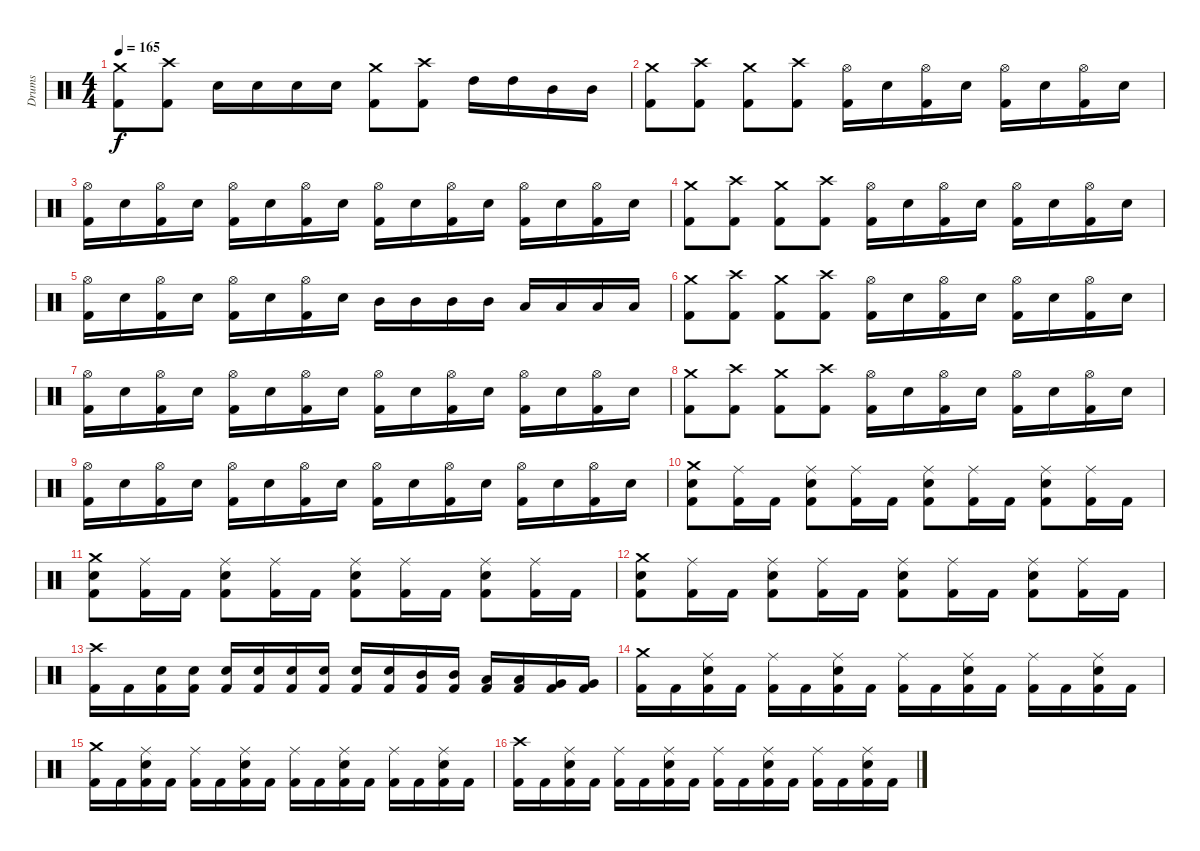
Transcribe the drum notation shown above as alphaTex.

\track ("Drums" "Drums") {instrument percussion}
\staff {score}
\articulation defaults
\ts (4 4)
\tempo 165
\clef neutral
\ks c
("Crash medium (hit)" "Kick (hit) 2").8{dy f} ("Crash high (hit)" "Kick (hit) 2").8 "Electric Snare (hit)".16 "Electric Snare (hit)".16 "Electric Snare (hit)".16 "Electric Snare (hit)".16 ("Crash medium (hit)" "Kick (hit) 2").8 ("Crash high (hit)" "Kick (hit) 2").8 "High Tom (hit)".16 "High Tom (hit)".16 "Mid Tom (hit)".16 "Mid Tom (hit)".16 |
("Crash medium (hit)" "Kick (hit) 2").8 ("Crash high (hit)" "Kick (hit) 2").8 ("Crash medium (hit)" "Kick (hit) 2").8 ("Crash high (hit)" "Kick (hit) 2").8 ("Hi-Hat (open)" "Kick (hit) 2").16 "Electric Snare (hit)".16 ("Hi-Hat (open)" "Kick (hit) 2").16 "Electric Snare (hit)".16 ("Hi-Hat (open)" "Kick (hit) 2").16 "Electric Snare (hit)".16 ("Hi-Hat (open)" "Kick (hit) 2").16 "Electric Snare (hit)".16 |
("Hi-Hat (open)" "Kick (hit) 2").16 "Electric Snare (hit)".16 ("Hi-Hat (open)" "Kick (hit) 2").16 "Electric Snare (hit)".16 ("Hi-Hat (open)" "Kick (hit) 2").16 "Electric Snare (hit)".16 ("Hi-Hat (open)" "Kick (hit) 2").16 "Electric Snare (hit)".16 ("Hi-Hat (open)" "Kick (hit) 2").16 "Electric Snare (hit)".16 ("Hi-Hat (open)" "Kick (hit) 2").16 "Electric Snare (hit)".16 ("Hi-Hat (open)" "Kick (hit) 2").16 "Electric Snare (hit)".16 ("Hi-Hat (open)" "Kick (hit) 2").16 "Electric Snare (hit)".16 |
("Crash medium (hit)" "Kick (hit) 2").8 ("Crash high (hit)" "Kick (hit) 2").8 ("Crash medium (hit)" "Kick (hit) 2").8 ("Crash high (hit)" "Kick (hit) 2").8 ("Hi-Hat (open)" "Kick (hit) 2").16 "Electric Snare (hit)".16 ("Hi-Hat (open)" "Kick (hit) 2").16 "Electric Snare (hit)".16 ("Hi-Hat (open)" "Kick (hit) 2").16 "Electric Snare (hit)".16 ("Hi-Hat (open)" "Kick (hit) 2").16 "Electric Snare (hit)".16 |
("Hi-Hat (open)" "Kick (hit) 2").16 "Electric Snare (hit)".16 ("Hi-Hat (open)" "Kick (hit) 2").16 "Electric Snare (hit)".16 ("Hi-Hat (open)" "Kick (hit) 2").16 "Electric Snare (hit)".16 ("Hi-Hat (open)" "Kick (hit) 2").16 "Electric Snare (hit)".16 "Mid Tom (hit)".16 "Mid Tom (hit)".16 "Mid Tom (hit)".16 "Mid Tom (hit)".16 "Low Tom (hit)".16 "Low Tom (hit)".16 "Low Tom (hit)".16 "Low Tom (hit)".16 |
("Crash medium (hit)" "Kick (hit) 2").8 ("Crash high (hit)" "Kick (hit) 2").8 ("Crash medium (hit)" "Kick (hit) 2").8 ("Crash high (hit)" "Kick (hit) 2").8 ("Hi-Hat (open)" "Kick (hit) 2").16 "Electric Snare (hit)".16 ("Hi-Hat (open)" "Kick (hit) 2").16 "Electric Snare (hit)".16 ("Hi-Hat (open)" "Kick (hit) 2").16 "Electric Snare (hit)".16 ("Hi-Hat (open)" "Kick (hit) 2").16 "Electric Snare (hit)".16 |
("Hi-Hat (open)" "Kick (hit) 2").16 "Electric Snare (hit)".16 ("Hi-Hat (open)" "Kick (hit) 2").16 "Electric Snare (hit)".16 ("Hi-Hat (open)" "Kick (hit) 2").16 "Electric Snare (hit)".16 ("Hi-Hat (open)" "Kick (hit) 2").16 "Electric Snare (hit)".16 ("Hi-Hat (open)" "Kick (hit) 2").16 "Electric Snare (hit)".16 ("Hi-Hat (open)" "Kick (hit) 2").16 "Electric Snare (hit)".16 ("Hi-Hat (open)" "Kick (hit) 2").16 "Electric Snare (hit)".16 ("Hi-Hat (open)" "Kick (hit) 2").16 "Electric Snare (hit)".16 |
("Crash medium (hit)" "Kick (hit) 2").8 ("Crash high (hit)" "Kick (hit) 2").8 ("Crash medium (hit)" "Kick (hit) 2").8 ("Crash high (hit)" "Kick (hit) 2").8 ("Hi-Hat (open)" "Kick (hit) 2").16 "Electric Snare (hit)".16 ("Hi-Hat (open)" "Kick (hit) 2").16 "Electric Snare (hit)".16 ("Hi-Hat (open)" "Kick (hit) 2").16 "Electric Snare (hit)".16 ("Hi-Hat (open)" "Kick (hit) 2").16 "Electric Snare (hit)".16 |
("Hi-Hat (open)" "Kick (hit) 2").16 "Electric Snare (hit)".16 ("Hi-Hat (open)" "Kick (hit) 2").16 "Electric Snare (hit)".16 ("Hi-Hat (open)" "Kick (hit) 2").16 "Electric Snare (hit)".16 ("Hi-Hat (open)" "Kick (hit) 2").16 "Electric Snare (hit)".16 ("Hi-Hat (open)" "Kick (hit) 2").16 "Electric Snare (hit)".16 ("Hi-Hat (open)" "Kick (hit) 2").16 "Electric Snare (hit)".16 ("Hi-Hat (open)" "Kick (hit) 2").16 "Electric Snare (hit)".16 ("Hi-Hat (open)" "Kick (hit) 2").16 "Electric Snare (hit)".16 |
("Crash medium (hit)" "Electric Snare (hit)" "Kick (hit) 2").8 ("Ride (middle)" "Kick (hit) 2").16 "Kick (hit) 2".16 ("Ride (middle)" "Electric Snare (hit)" "Kick (hit) 2").8 ("Ride (middle)" "Kick (hit) 2").16 "Kick (hit) 2".16 ("Ride (middle)" "Electric Snare (hit)" "Kick (hit) 2").8 ("Ride (middle)" "Kick (hit) 2").16 "Kick (hit) 2".16 ("Ride (middle)" "Electric Snare (hit)" "Kick (hit) 2").8 ("Ride (middle)" "Kick (hit) 2").16 "Kick (hit) 2".16 |
("Crash medium (hit)" "Electric Snare (hit)" "Kick (hit) 2").8 ("Ride (middle)" "Kick (hit) 2").16 "Kick (hit) 2".16 ("Ride (middle)" "Electric Snare (hit)" "Kick (hit) 2").8 ("Ride (middle)" "Kick (hit) 2").16 "Kick (hit) 2".16 ("Ride (middle)" "Electric Snare (hit)" "Kick (hit) 2").8 ("Ride (middle)" "Kick (hit) 2").16 "Kick (hit) 2".16 ("Ride (middle)" "Electric Snare (hit)" "Kick (hit) 2").8 ("Ride (middle)" "Kick (hit) 2").16 "Kick (hit) 2".16 |
("Crash medium (hit)" "Electric Snare (hit)" "Kick (hit) 2").8 ("Ride (middle)" "Kick (hit) 2").16 "Kick (hit) 2".16 ("Ride (middle)" "Electric Snare (hit)" "Kick (hit) 2").8 ("Ride (middle)" "Kick (hit) 2").16 "Kick (hit) 2".16 ("Ride (middle)" "Electric Snare (hit)" "Kick (hit) 2").8 ("Ride (middle)" "Kick (hit) 2").16 "Kick (hit) 2".16 ("Ride (middle)" "Electric Snare (hit)" "Kick (hit) 2").8 ("Ride (middle)" "Kick (hit) 2").16 "Kick (hit) 2".16 |
("Crash high (hit)" "Kick (hit) 2").16 "Kick (hit) 2".16 ("Electric Snare (hit)" "Kick (hit) 2").16 ("Electric Snare (hit)" "Kick (hit) 2").16 ("Electric Snare (hit)" "Kick (hit) 2").16 ("Electric Snare (hit)" "Kick (hit) 2").16 ("Electric Snare (hit)" "Kick (hit) 2").16 ("Electric Snare (hit)" "Kick (hit) 2").16 ("Electric Snare (hit)" "Kick (hit) 2").16 ("Electric Snare (hit)" "Kick (hit) 2").16 ("Mid Tom (hit)" "Kick (hit) 2").16 ("Mid Tom (hit)" "Kick (hit) 2").16 ("Low Tom (hit)" "Kick (hit) 2").16 ("Low Tom (hit)" "Kick (hit) 2").16 ("Very Low Tom (hit)" "Kick (hit) 2").16 ("Very Low Tom (hit)" "Kick (hit) 2").16 |
("Crash medium (hit)" "Kick (hit) 2").16 "Kick (hit) 2".16 ("Ride (middle)" "Electric Snare (hit)" "Kick (hit) 2").16 "Kick (hit) 2".16 ("Ride (middle)" "Kick (hit) 2").16 "Kick (hit) 2".16 ("Ride (middle)" "Electric Snare (hit)" "Kick (hit) 2").16 "Kick (hit) 2".16 ("Ride (middle)" "Kick (hit) 2").16 "Kick (hit) 2".16 ("Ride (middle)" "Electric Snare (hit)" "Kick (hit) 2").16 "Kick (hit) 2".16 ("Ride (middle)" "Kick (hit) 2").16 "Kick (hit) 2".16 ("Ride (middle)" "Electric Snare (hit)" "Kick (hit) 2").16 "Kick (hit) 2".16 |
("Crash medium (hit)" "Kick (hit) 2").16 "Kick (hit) 2".16 ("Ride (middle)" "Electric Snare (hit)" "Kick (hit) 2").16 "Kick (hit) 2".16 ("Ride (middle)" "Kick (hit) 2").16 "Kick (hit) 2".16 ("Ride (middle)" "Electric Snare (hit)" "Kick (hit) 2").16 "Kick (hit) 2".16 ("Ride (middle)" "Kick (hit) 2").16 "Kick (hit) 2".16 ("Ride (middle)" "Electric Snare (hit)" "Kick (hit) 2").16 "Kick (hit) 2".16 ("Ride (middle)" "Kick (hit) 2").16 "Kick (hit) 2".16 ("Ride (middle)" "Electric Snare (hit)" "Kick (hit) 2").16 "Kick (hit) 2".16 |
("Crash high (hit)" "Kick (hit) 2").16 "Kick (hit) 2".16 ("Ride (middle)" "Electric Snare (hit)" "Kick (hit) 2").16 "Kick (hit) 2".16 ("Ride (middle)" "Kick (hit) 2").16 "Kick (hit) 2".16 ("Ride (middle)" "Electric Snare (hit)" "Kick (hit) 2").16 "Kick (hit) 2".16 ("Ride (middle)" "Kick (hit) 2").16 "Kick (hit) 2".16 ("Ride (middle)" "Electric Snare (hit)" "Kick (hit) 2").16 "Kick (hit) 2".16 ("Ride (middle)" "Kick (hit) 2").16 "Kick (hit) 2".16 ("Ride (middle)" "Electric Snare (hit)" "Kick (hit) 2").16 "Kick (hit) 2".16
